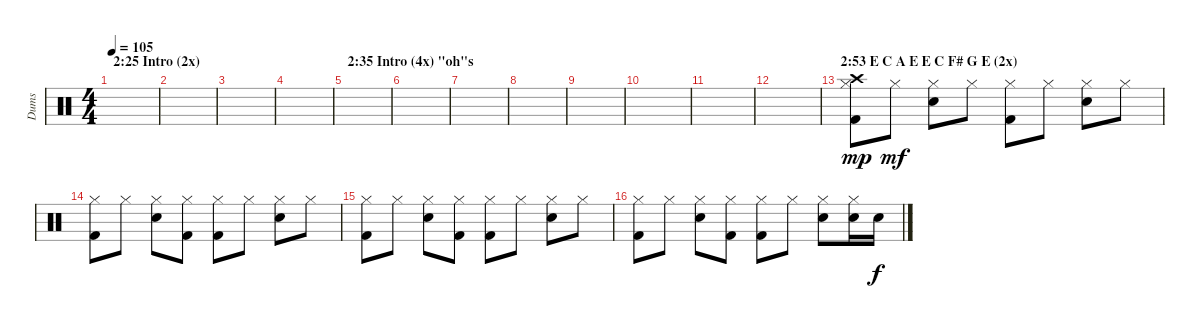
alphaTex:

\track ("Dums" "Dums") {instrument percussion}
\staff {score}
\articulation defaults
\ts (4 4)
\section ("" "2:25 Intro (2x)")
\tempo 105
\clef neutral
\ks c
|
|
|
|
\section ("" "2:35 Intro (4x) \"oh\"s")
|
|
|
|
|
|
|
|
\section ("" "2:53 E C A E E C F# G E (2x)")
("Kick (hit) 2" "Hi-Hat (closed)" "Crash high (hit)").8{dy mp} "Hi-Hat (closed)".8{dy mf} ("Electric Snare (hit)" "Hi-Hat (closed)").8 "Hi-Hat (closed)".8 ("Kick (hit) 2" "Hi-Hat (closed)").8 "Hi-Hat (closed)".8 ("Electric Snare (hit)" "Hi-Hat (closed)").8 "Hi-Hat (closed)".8 |
("Kick (hit) 2" "Hi-Hat (closed)").8 "Hi-Hat (closed)".8 ("Electric Snare (hit)" "Hi-Hat (closed)").8 ("Kick (hit) 2" "Hi-Hat (closed)").8 ("Kick (hit) 2" "Hi-Hat (closed)").8 "Hi-Hat (closed)".8 ("Electric Snare (hit)" "Hi-Hat (closed)").8 "Hi-Hat (closed)".8 |
("Kick (hit) 2" "Hi-Hat (closed)").8 "Hi-Hat (closed)".8 ("Electric Snare (hit)" "Hi-Hat (closed)").8 ("Kick (hit) 2" "Hi-Hat (closed)").8 ("Kick (hit) 2" "Hi-Hat (closed)").8 "Hi-Hat (closed)".8 ("Electric Snare (hit)" "Hi-Hat (closed)").8 "Hi-Hat (closed)".8 |
("Kick (hit) 2" "Hi-Hat (closed)").8 "Hi-Hat (closed)".8 ("Electric Snare (hit)" "Hi-Hat (closed)").8 ("Kick (hit) 2" "Hi-Hat (closed)").8 ("Kick (hit) 2" "Hi-Hat (closed)").8 "Hi-Hat (closed)".8 ("Electric Snare (hit)" "Hi-Hat (closed)").8 ("Electric Snare (hit)" "Hi-Hat (closed)").16 "Electric Snare (hit)".16{dy f}
